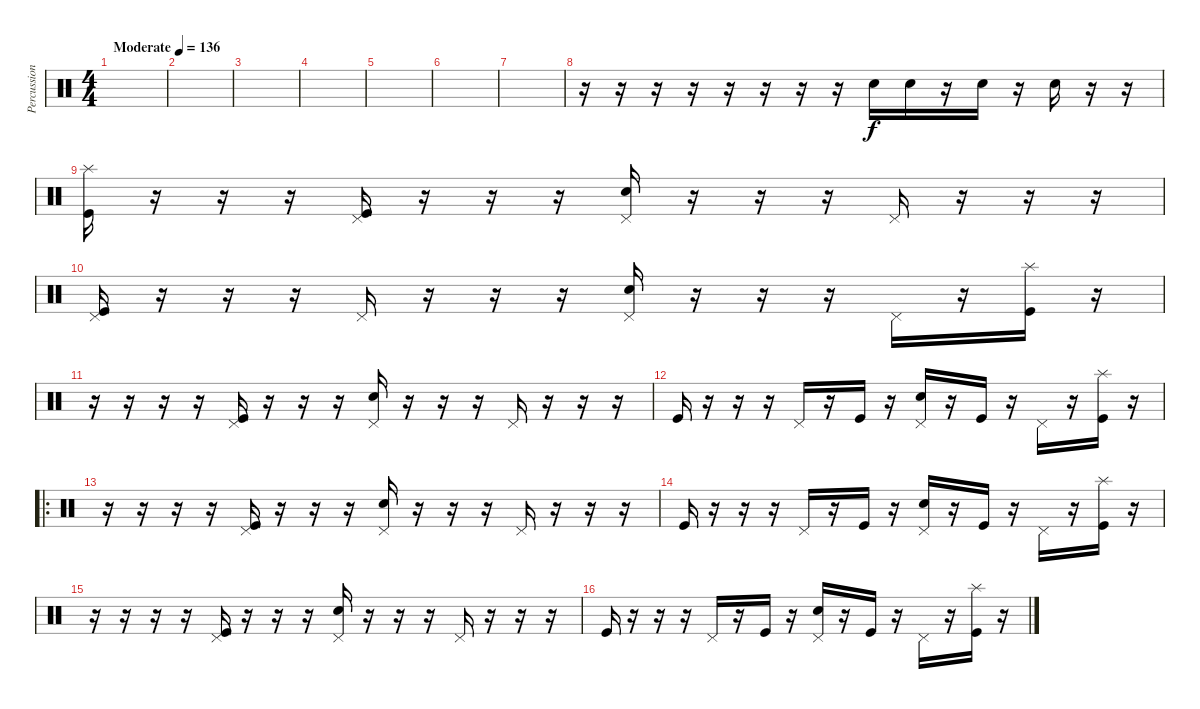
\track ("Percussion" "Percussion") {instrument percussion}
\staff {score}
\articulation defaults
\ts (4 4)
\tempo (136 "Moderate")
\clef neutral
\ks c
|
|
|
|
|
|
|
r.16 r.16 r.16 r.16 r.16 r.16 r.16 r.16 "Snare (hit) 2".16 "Snare (hit) 2".16 r.16 "Snare (hit) 2".16 r.16 "Snare (hit) 2".16 r.16 r.16 |
("Splash (hit)" "Kick (hit)").16 r.16 r.16 r.16 ("Pedal Hi-Hat (hit)" "Kick (hit)").16 r.16 r.16 r.16 ("Pedal Hi-Hat (hit)" "Snare (hit) 2").16 r.16 r.16 r.16 "Pedal Hi-Hat (hit)".16 r.16 r.16 r.16 |
("Pedal Hi-Hat (hit)" "Kick (hit)").16 r.16 r.16 r.16 "Pedal Hi-Hat (hit)".16 r.16 r.16 r.16 ("Pedal Hi-Hat (hit)" "Snare (hit) 2").16 r.16 r.16 r.16 "Pedal Hi-Hat (hit)".16 r.16 ("Splash (hit)" "Kick (hit)").16 r.16 |
r.16 r.16 r.16 r.16 ("Pedal Hi-Hat (hit)" "Kick (hit)").16 r.16 r.16 r.16 ("Pedal Hi-Hat (hit)" "Snare (hit) 2").16 r.16 r.16 r.16 "Pedal Hi-Hat (hit)".16 r.16 r.16 r.16 |
"Kick (hit)".16 r.16 r.16 r.16 "Pedal Hi-Hat (hit)".16 r.16 "Kick (hit)".16 r.16 ("Pedal Hi-Hat (hit)" "Snare (hit) 2").16 r.16 "Kick (hit)".16 r.16 "Pedal Hi-Hat (hit)".16 r.16 ("Splash (hit)" "Kick (hit)").16 r.16 |
\ro
r.16 r.16 r.16 r.16 ("Pedal Hi-Hat (hit)" "Kick (hit)").16 r.16 r.16 r.16 ("Pedal Hi-Hat (hit)" "Snare (hit) 2").16 r.16 r.16 r.16 "Pedal Hi-Hat (hit)".16 r.16 r.16 r.16 |
"Kick (hit)".16 r.16 r.16 r.16 "Pedal Hi-Hat (hit)".16 r.16 "Kick (hit)".16 r.16 ("Pedal Hi-Hat (hit)" "Snare (hit) 2").16 r.16 "Kick (hit)".16 r.16 "Pedal Hi-Hat (hit)".16 r.16 ("Splash (hit)" "Kick (hit)").16 r.16 |
r.16 r.16 r.16 r.16 ("Pedal Hi-Hat (hit)" "Kick (hit)").16 r.16 r.16 r.16 ("Pedal Hi-Hat (hit)" "Snare (hit) 2").16 r.16 r.16 r.16 "Pedal Hi-Hat (hit)".16 r.16 r.16 r.16 |
"Kick (hit)".16 r.16 r.16 r.16 "Pedal Hi-Hat (hit)".16 r.16 "Kick (hit)".16 r.16 ("Pedal Hi-Hat (hit)" "Snare (hit) 2").16 r.16 "Kick (hit)".16 r.16 "Pedal Hi-Hat (hit)".16 r.16 ("Splash (hit)" "Kick (hit)").16 r.16
